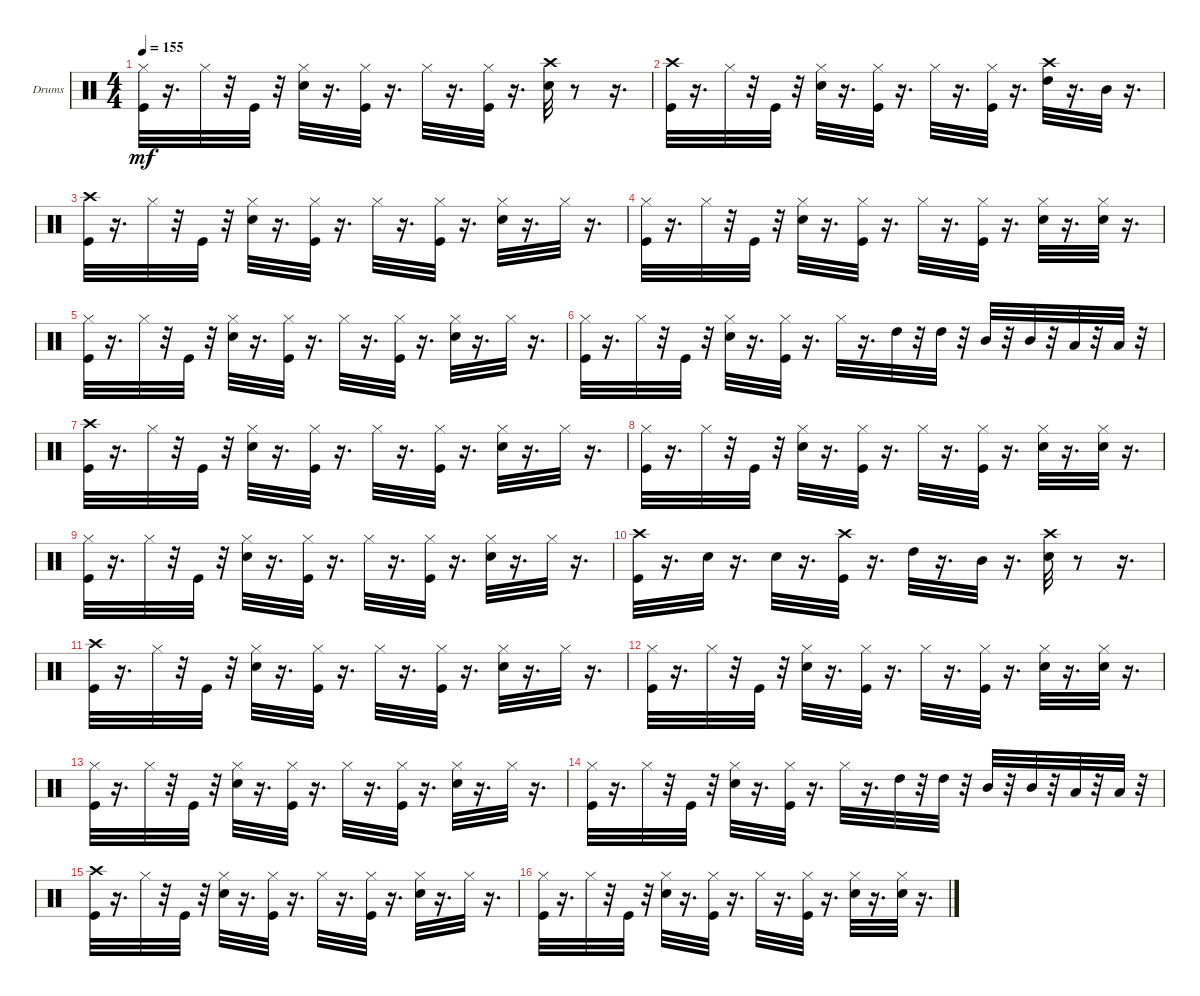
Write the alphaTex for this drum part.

\bracketExtendMode groupsimilarinstruments
\firstSystemTrackNameOrientation horizontal
\otherSystemsTrackNameOrientation horizontal
\track ("" "Drums") {instrument percussion}
\staff {score}
\articulation defaults
\ts (4 4)
\tempo 155
\clef neutral
\ks c
("Hi-Hat (closed)" "Kick (hit)").32{dy mf} r.16{d} "Hi-Hat (closed)".32 r.32 "Kick (hit)".32 r.32 ("Hi-Hat (closed)" "Snare (hit) 2").32 r.16{d} ("Kick (hit)" "Hi-Hat (closed)").32 r.16{d} "Hi-Hat (closed)".32 r.16{d} ("Kick (hit)" "Hi-Hat (closed)").32 r.16{d} ("Crash high (hit)" "Snare (hit) 2").32 r.8 r.16{d} |
("Crash high (hit)" "Kick (hit)").32 r.16{d} "Hi-Hat (closed)".32 r.32 "Kick (hit)".32 r.32 ("Hi-Hat (closed)" "Snare (hit) 2").32 r.16{d} ("Kick (hit)" "Hi-Hat (closed)").32 r.16{d} "Hi-Hat (closed)".32 r.16{d} ("Kick (hit)" "Hi-Hat (closed)").32 r.16{d} ("High Tom (hit)" "Crash high (hit)").32 r.16{d} "Mid Tom (hit)".32 r.16{d} |
("Crash high (hit)" "Kick (hit)").32 r.16{d} "Hi-Hat (closed)".32 r.32 "Kick (hit)".32 r.32 ("Hi-Hat (closed)" "Snare (hit) 2").32 r.16{d} ("Kick (hit)" "Hi-Hat (closed)").32 r.16{d} "Hi-Hat (closed)".32 r.16{d} ("Kick (hit)" "Hi-Hat (closed)").32 r.16{d} ("Hi-Hat (closed)" "Snare (hit) 2").32 r.16{d} "Hi-Hat (closed)".32 r.16{d} |
("Hi-Hat (closed)" "Kick (hit)").32 r.16{d} "Hi-Hat (closed)".32 r.32 "Kick (hit)".32 r.32 ("Hi-Hat (closed)" "Snare (hit) 2").32 r.16{d} ("Kick (hit)" "Hi-Hat (closed)").32 r.16{d} "Hi-Hat (closed)".32 r.16{d} ("Kick (hit)" "Hi-Hat (closed)").32 r.16{d} ("Hi-Hat (closed)" "Snare (hit) 2").32 r.16{d} ("Snare (hit) 2" "Hi-Hat (closed)").32 r.16{d} |
("Hi-Hat (closed)" "Kick (hit)").32 r.16{d} "Hi-Hat (closed)".32 r.32 "Kick (hit)".32 r.32 ("Hi-Hat (closed)" "Snare (hit) 2").32 r.16{d} ("Kick (hit)" "Hi-Hat (closed)").32 r.16{d} "Hi-Hat (closed)".32 r.16{d} ("Kick (hit)" "Hi-Hat (closed)").32 r.16{d} ("Hi-Hat (closed)" "Snare (hit) 2").32 r.16{d} "Hi-Hat (closed)".32 r.16{d} |
("Hi-Hat (closed)" "Kick (hit)").32 r.16{d} "Hi-Hat (closed)".32 r.32 "Kick (hit)".32 r.32 ("Hi-Hat (closed)" "Snare (hit) 2").32 r.16{d} ("Kick (hit)" "Hi-Hat (closed)").32 r.16{d} "Hi-Hat (closed)".32 r.16{d} "High Tom (hit)".32 r.32 "High Tom (hit)".32 r.32 "Mid Tom (hit)".32 r.32 "Mid Tom (hit)".32 r.32 "Low Tom (hit)".32 r.32 "Low Tom (hit)".32 r.32 |
("Crash high (hit)" "Kick (hit)").32 r.16{d} "Hi-Hat (closed)".32 r.32 "Kick (hit)".32 r.32 ("Hi-Hat (closed)" "Snare (hit) 2").32 r.16{d} ("Kick (hit)" "Hi-Hat (closed)").32 r.16{d} "Hi-Hat (closed)".32 r.16{d} ("Kick (hit)" "Hi-Hat (closed)").32 r.16{d} ("Hi-Hat (closed)" "Snare (hit) 2").32 r.16{d} "Hi-Hat (closed)".32 r.16{d} |
("Hi-Hat (closed)" "Kick (hit)").32 r.16{d} "Hi-Hat (closed)".32 r.32 "Kick (hit)".32 r.32 ("Hi-Hat (closed)" "Snare (hit) 2").32 r.16{d} ("Kick (hit)" "Hi-Hat (closed)").32 r.16{d} "Hi-Hat (closed)".32 r.16{d} ("Kick (hit)" "Hi-Hat (closed)").32 r.16{d} ("Hi-Hat (closed)" "Snare (hit) 2").32 r.16{d} ("Snare (hit) 2" "Hi-Hat (closed)").32 r.16{d} |
("Hi-Hat (closed)" "Kick (hit)").32 r.16{d} "Hi-Hat (closed)".32 r.32 "Kick (hit)".32 r.32 ("Hi-Hat (closed)" "Snare (hit) 2").32 r.16{d} ("Kick (hit)" "Hi-Hat (closed)").32 r.16{d} "Hi-Hat (closed)".32 r.16{d} ("Kick (hit)" "Hi-Hat (closed)").32 r.16{d} ("Hi-Hat (closed)" "Snare (hit) 2").32 r.16{d} "Hi-Hat (closed)".32 r.16{d} |
("Crash high (hit)" "Kick (hit)").32 r.16{d} "Snare (hit) 2".32 r.16{d} "Snare (hit) 2".32 r.16{d} ("Crash high (hit)" "Kick (hit)").32 r.16{d} "High Tom (hit)".32 r.16{d} "Mid Tom (hit)".32 r.16{d} ("Crash high (hit)" "Snare (hit) 2").32 r.8 r.16{d} |
("Crash high (hit)" "Kick (hit)").32 r.16{d} "Hi-Hat (closed)".32 r.32 "Kick (hit)".32 r.32 ("Hi-Hat (closed)" "Snare (hit) 2").32 r.16{d} ("Kick (hit)" "Hi-Hat (closed)").32 r.16{d} "Hi-Hat (closed)".32 r.16{d} ("Kick (hit)" "Hi-Hat (closed)").32 r.16{d} ("Hi-Hat (closed)" "Snare (hit) 2").32 r.16{d} "Hi-Hat (closed)".32 r.16{d} |
("Hi-Hat (closed)" "Kick (hit)").32 r.16{d} "Hi-Hat (closed)".32 r.32 "Kick (hit)".32 r.32 ("Hi-Hat (closed)" "Snare (hit) 2").32 r.16{d} ("Kick (hit)" "Hi-Hat (closed)").32 r.16{d} "Hi-Hat (closed)".32 r.16{d} ("Kick (hit)" "Hi-Hat (closed)").32 r.16{d} ("Hi-Hat (closed)" "Snare (hit) 2").32 r.16{d} ("Snare (hit) 2" "Hi-Hat (closed)").32 r.16{d} |
("Hi-Hat (closed)" "Kick (hit)").32 r.16{d} "Hi-Hat (closed)".32 r.32 "Kick (hit)".32 r.32 ("Hi-Hat (closed)" "Snare (hit) 2").32 r.16{d} ("Kick (hit)" "Hi-Hat (closed)").32 r.16{d} "Hi-Hat (closed)".32 r.16{d} ("Kick (hit)" "Hi-Hat (closed)").32 r.16{d} ("Hi-Hat (closed)" "Snare (hit) 2").32 r.16{d} "Hi-Hat (closed)".32 r.16{d} |
("Hi-Hat (closed)" "Kick (hit)").32 r.16{d} "Hi-Hat (closed)".32 r.32 "Kick (hit)".32 r.32 ("Hi-Hat (closed)" "Snare (hit) 2").32 r.16{d} ("Kick (hit)" "Hi-Hat (closed)").32 r.16{d} "Hi-Hat (closed)".32 r.16{d} "High Tom (hit)".32 r.32 "High Tom (hit)".32 r.32 "Mid Tom (hit)".32 r.32 "Mid Tom (hit)".32 r.32 "Low Tom (hit)".32 r.32 "Low Tom (hit)".32 r.32 |
("Crash high (hit)" "Kick (hit)").32 r.16{d} "Hi-Hat (closed)".32 r.32 "Kick (hit)".32 r.32 ("Hi-Hat (closed)" "Snare (hit) 2").32 r.16{d} ("Kick (hit)" "Hi-Hat (closed)").32 r.16{d} "Hi-Hat (closed)".32 r.16{d} ("Kick (hit)" "Hi-Hat (closed)").32 r.16{d} ("Hi-Hat (closed)" "Snare (hit) 2").32 r.16{d} "Hi-Hat (closed)".32 r.16{d} |
("Hi-Hat (closed)" "Kick (hit)").32 r.16{d} "Hi-Hat (closed)".32 r.32 "Kick (hit)".32 r.32 ("Hi-Hat (closed)" "Snare (hit) 2").32 r.16{d} ("Kick (hit)" "Hi-Hat (closed)").32 r.16{d} "Hi-Hat (closed)".32 r.16{d} ("Kick (hit)" "Hi-Hat (closed)").32 r.16{d} ("Hi-Hat (closed)" "Snare (hit) 2").32 r.16{d} ("Snare (hit) 2" "Hi-Hat (closed)").32 r.16{d}
